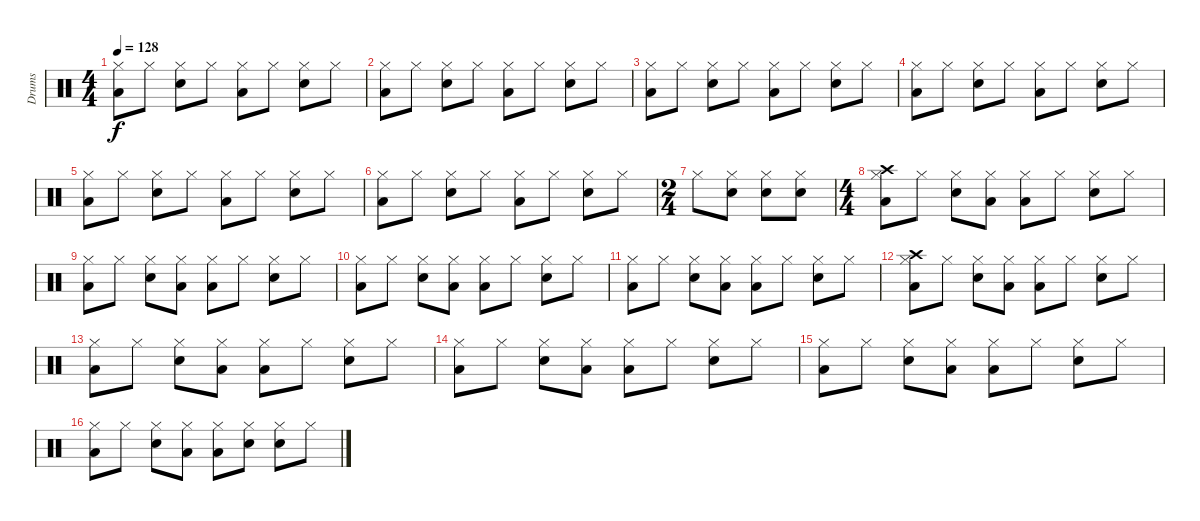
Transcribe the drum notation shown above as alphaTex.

\track ("Drums" "Drums") {instrument percussion}
\staff {score}
\articulation defaults
\ts (4 4)
\tempo 128
\clef neutral
\ks c
("Hi-Hat (closed)" "Low Tom (hit)").8{dy f} "Hi-Hat (closed)".8 ("Hi-Hat (closed)" "Snare (hit) 2").8 "Hi-Hat (closed)".8 ("Hi-Hat (closed)" "Low Tom (hit)").8 "Hi-Hat (closed)".8 ("Hi-Hat (closed)" "Snare (hit) 2").8 "Hi-Hat (closed)".8 |
("Hi-Hat (closed)" "Low Tom (hit)").8 "Hi-Hat (closed)".8 ("Hi-Hat (closed)" "Snare (hit) 2").8 "Hi-Hat (closed)".8 ("Hi-Hat (closed)" "Low Tom (hit)").8 "Hi-Hat (closed)".8 ("Hi-Hat (closed)" "Snare (hit) 2").8 "Hi-Hat (closed)".8 |
("Hi-Hat (closed)" "Low Tom (hit)").8 "Hi-Hat (closed)".8 ("Hi-Hat (closed)" "Snare (hit) 2").8 "Hi-Hat (closed)".8 ("Hi-Hat (closed)" "Low Tom (hit)").8 "Hi-Hat (closed)".8 ("Hi-Hat (closed)" "Snare (hit) 2").8 "Hi-Hat (closed)".8 |
("Hi-Hat (closed)" "Low Tom (hit)").8 "Hi-Hat (closed)".8 ("Hi-Hat (closed)" "Snare (hit) 2").8 "Hi-Hat (closed)".8 ("Hi-Hat (closed)" "Low Tom (hit)").8 "Hi-Hat (closed)".8 ("Hi-Hat (closed)" "Snare (hit) 2").8 "Hi-Hat (closed)".8 |
("Hi-Hat (closed)" "Low Tom (hit)").8 "Hi-Hat (closed)".8 ("Hi-Hat (closed)" "Snare (hit) 2").8 "Hi-Hat (closed)".8 ("Hi-Hat (closed)" "Low Tom (hit)").8 "Hi-Hat (closed)".8 ("Hi-Hat (closed)" "Snare (hit) 2").8 "Hi-Hat (closed)".8 |
("Hi-Hat (closed)" "Low Tom (hit)").8 "Hi-Hat (closed)".8 ("Hi-Hat (closed)" "Snare (hit) 2").8 "Hi-Hat (closed)".8 ("Hi-Hat (closed)" "Low Tom (hit)").8 "Hi-Hat (closed)".8 ("Hi-Hat (closed)" "Snare (hit) 2").8 "Hi-Hat (closed)".8 |
\ts (2 4)
"Hi-Hat (closed)".8 ("Hi-Hat (closed)" "Snare (hit) 2").8 ("Hi-Hat (closed)" "Snare (hit) 2").8 ("Hi-Hat (closed)" "Snare (hit) 2").8 |
\ts (4 4)
("Hi-Hat (closed)" "Low Tom (hit)" "Crash high (hit)").8 "Hi-Hat (closed)".8 ("Hi-Hat (closed)" "Snare (hit) 2").8 ("Hi-Hat (closed)" "Low Tom (hit)").8 ("Hi-Hat (closed)" "Low Tom (hit)").8 "Hi-Hat (closed)".8 ("Hi-Hat (closed)" "Snare (hit) 2").8 "Hi-Hat (closed)".8 |
("Hi-Hat (closed)" "Low Tom (hit)").8 "Hi-Hat (closed)".8 ("Hi-Hat (closed)" "Snare (hit) 2").8 ("Hi-Hat (closed)" "Low Tom (hit)").8 ("Hi-Hat (closed)" "Low Tom (hit)").8 "Hi-Hat (closed)".8 ("Hi-Hat (closed)" "Snare (hit) 2").8 "Hi-Hat (closed)".8 |
("Hi-Hat (closed)" "Low Tom (hit)").8 "Hi-Hat (closed)".8 ("Hi-Hat (closed)" "Snare (hit) 2").8 ("Hi-Hat (closed)" "Low Tom (hit)").8 ("Hi-Hat (closed)" "Low Tom (hit)").8 "Hi-Hat (closed)".8 ("Hi-Hat (closed)" "Snare (hit) 2").8 "Hi-Hat (closed)".8 |
("Hi-Hat (closed)" "Low Tom (hit)").8 "Hi-Hat (closed)".8 ("Hi-Hat (closed)" "Snare (hit) 2").8 ("Hi-Hat (closed)" "Low Tom (hit)").8 ("Hi-Hat (closed)" "Low Tom (hit)").8 "Hi-Hat (closed)".8 ("Hi-Hat (closed)" "Snare (hit) 2").8 "Hi-Hat (closed)".8 |
("Hi-Hat (closed)" "Low Tom (hit)" "Crash high (hit)").8 "Hi-Hat (closed)".8 ("Hi-Hat (closed)" "Snare (hit) 2").8 ("Hi-Hat (closed)" "Low Tom (hit)").8 ("Hi-Hat (closed)" "Low Tom (hit)").8 "Hi-Hat (closed)".8 ("Hi-Hat (closed)" "Snare (hit) 2").8 "Hi-Hat (closed)".8 |
("Hi-Hat (closed)" "Low Tom (hit)").8 "Hi-Hat (closed)".8 ("Hi-Hat (closed)" "Snare (hit) 2").8 ("Hi-Hat (closed)" "Low Tom (hit)").8 ("Hi-Hat (closed)" "Low Tom (hit)").8 "Hi-Hat (closed)".8 ("Hi-Hat (closed)" "Snare (hit) 2").8 "Hi-Hat (closed)".8 |
("Hi-Hat (closed)" "Low Tom (hit)").8 "Hi-Hat (closed)".8 ("Hi-Hat (closed)" "Snare (hit) 2").8 ("Hi-Hat (closed)" "Low Tom (hit)").8 ("Hi-Hat (closed)" "Low Tom (hit)").8 "Hi-Hat (closed)".8 ("Hi-Hat (closed)" "Snare (hit) 2").8 "Hi-Hat (closed)".8 |
("Hi-Hat (closed)" "Low Tom (hit)").8 "Hi-Hat (closed)".8 ("Hi-Hat (closed)" "Snare (hit) 2").8 ("Hi-Hat (closed)" "Low Tom (hit)").8 ("Hi-Hat (closed)" "Low Tom (hit)").8 "Hi-Hat (closed)".8 ("Hi-Hat (closed)" "Snare (hit) 2").8 "Hi-Hat (closed)".8 |
("Hi-Hat (closed)" "Low Tom (hit)").8 "Hi-Hat (closed)".8 ("Hi-Hat (closed)" "Snare (hit) 2").8 ("Hi-Hat (closed)" "Low Tom (hit)").8 ("Hi-Hat (closed)" "Low Tom (hit)").8 ("Hi-Hat (closed)" "Snare (hit) 2").8 ("Hi-Hat (closed)" "Snare (hit) 2").8 "Hi-Hat (closed)".8
